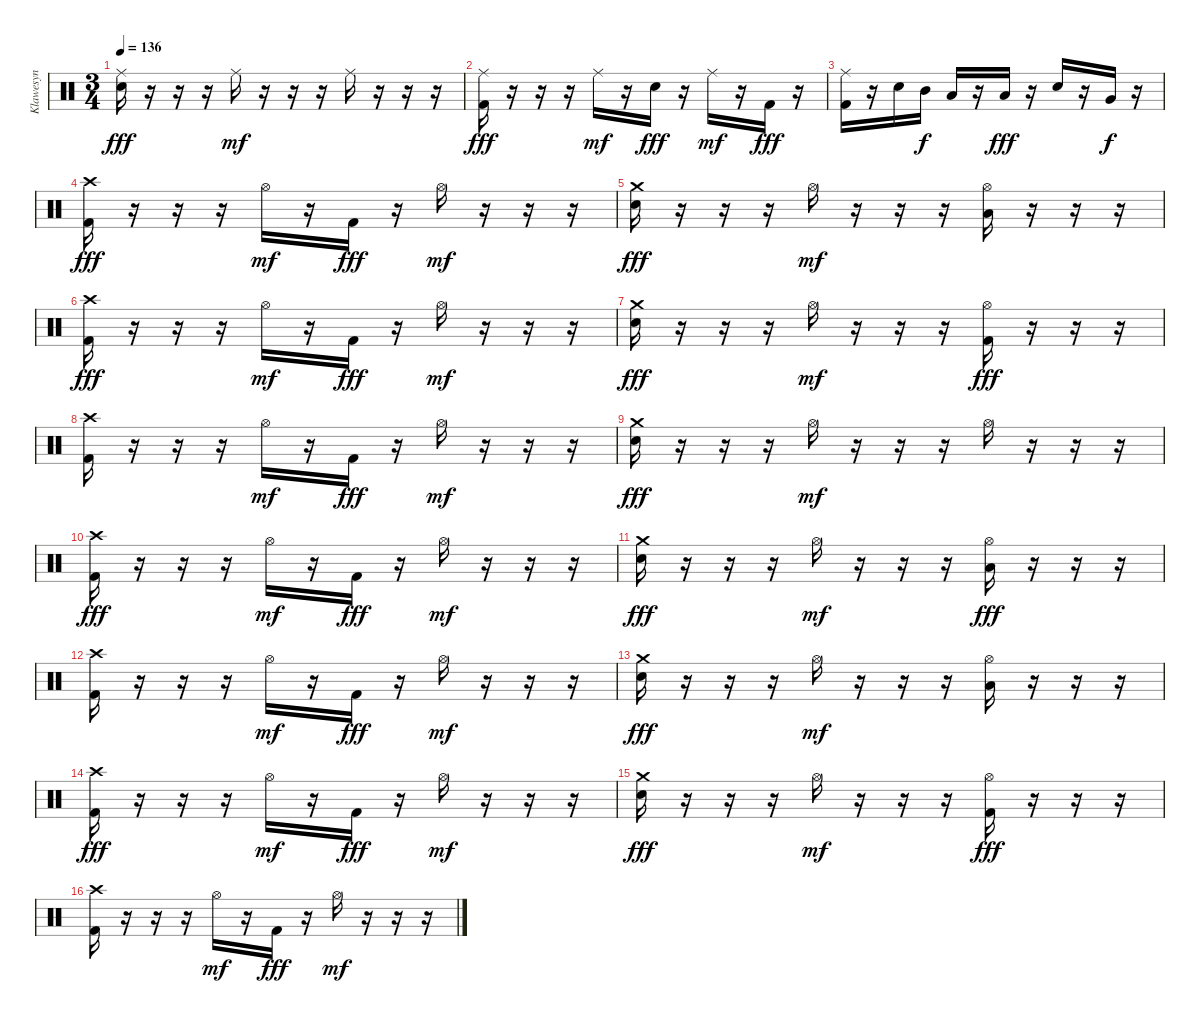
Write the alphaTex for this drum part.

\track ("Klawesyn" "Klawesyn") {instrument percussion}
\staff {score}
\articulation defaults
\ts (3 4)
\tempo 136
\clef neutral
\ks c
("Ride (middle)" "Snare (hit) 2").16{dy fff} r.16 r.16 r.16 "Ride (middle)".16{dy mf} r.16 r.16 r.16 "Ride (middle)".16 r.16 r.16 r.16 |
("Ride (middle)" "Kick (hit) 2").16{dy fff} r.16 r.16 r.16 "Ride (middle)".16{dy mf} r.16 "Snare (hit) 2".16{dy fff} r.16 "Ride (middle)".16{dy mf} r.16 "Kick (hit) 2".16{dy fff} r.16 |
("Ride (middle)" "Kick (hit) 2").16 r.16 "Snare (hit) 2".16 "Mid Tom (hit)".16{dy f} "Low Tom (hit)".16 r.16 "Low Tom (hit)".16{dy fff} r.16 "Snare (hit) 2".16 r.16 "Very Low Tom (hit)".16{dy f} r.16 |
("Crash high (hit)" "Kick (hit) 2").16{dy fff} r.16 r.16 r.16 "Hi-Hat (open)".16{dy mf} r.16 "Kick (hit) 2".16{dy fff} r.16 "Hi-Hat (open)".16{dy mf} r.16 r.16 r.16 |
("Crash medium (hit)" "Snare (hit) 2").16{dy fff} r.16 r.16 r.16 "Hi-Hat (open)".16{dy mf} r.16 r.16 r.16 ("Hi-Hat (open)" "Low Tom (hit)").16 r.16 r.16 r.16 |
("Crash high (hit)" "Kick (hit) 2").16{dy fff} r.16 r.16 r.16 "Hi-Hat (open)".16{dy mf} r.16 "Kick (hit) 2".16{dy fff} r.16 "Hi-Hat (open)".16{dy mf} r.16 r.16 r.16 |
("Crash medium (hit)" "Snare (hit) 2").16{dy fff} r.16 r.16 r.16 "Hi-Hat (open)".16{dy mf} r.16 r.16 r.16 ("Hi-Hat (open)" "Kick (hit) 2").16{dy fff} r.16 r.16 r.16 |
("Crash high (hit)" "Kick (hit) 2").16 r.16 r.16 r.16 "Hi-Hat (open)".16{dy mf} r.16 "Kick (hit) 2".16{dy fff} r.16 "Hi-Hat (open)".16{dy mf} r.16 r.16 r.16 |
("Crash medium (hit)" "Snare (hit) 2").16{dy fff} r.16 r.16 r.16 "Hi-Hat (open)".16{dy mf} r.16 r.16 r.16 "Hi-Hat (open)".16 r.16 r.16 r.16 |
("Crash high (hit)" "Kick (hit) 2").16{dy fff} r.16 r.16 r.16 "Hi-Hat (open)".16{dy mf} r.16 "Kick (hit) 2".16{dy fff} r.16 "Hi-Hat (open)".16{dy mf} r.16 r.16 r.16 |
("Crash medium (hit)" "Snare (hit) 2").16{dy fff} r.16 r.16 r.16 "Hi-Hat (open)".16{dy mf} r.16 r.16 r.16 ("Hi-Hat (open)" "Low Tom (hit)").16{dy fff} r.16 r.16 r.16 |
("Crash high (hit)" "Kick (hit) 2").16 r.16 r.16 r.16 "Hi-Hat (open)".16{dy mf} r.16 "Kick (hit) 2".16{dy fff} r.16 "Hi-Hat (open)".16{dy mf} r.16 r.16 r.16 |
("Crash medium (hit)" "Snare (hit) 2").16{dy fff} r.16 r.16 r.16 "Hi-Hat (open)".16{dy mf} r.16 r.16 r.16 ("Hi-Hat (open)" "Low Tom (hit)").16 r.16 r.16 r.16 |
("Crash high (hit)" "Kick (hit) 2").16{dy fff} r.16 r.16 r.16 "Hi-Hat (open)".16{dy mf} r.16 "Kick (hit) 2".16{dy fff} r.16 "Hi-Hat (open)".16{dy mf} r.16 r.16 r.16 |
("Crash medium (hit)" "Snare (hit) 2").16{dy fff} r.16 r.16 r.16 "Hi-Hat (open)".16{dy mf} r.16 r.16 r.16 ("Hi-Hat (open)" "Kick (hit) 2").16{dy fff} r.16 r.16 r.16 |
("Crash high (hit)" "Kick (hit) 2").16 r.16 r.16 r.16 "Hi-Hat (open)".16{dy mf} r.16 "Kick (hit) 2".16{dy fff} r.16 "Hi-Hat (open)".16{dy mf} r.16 r.16 r.16
